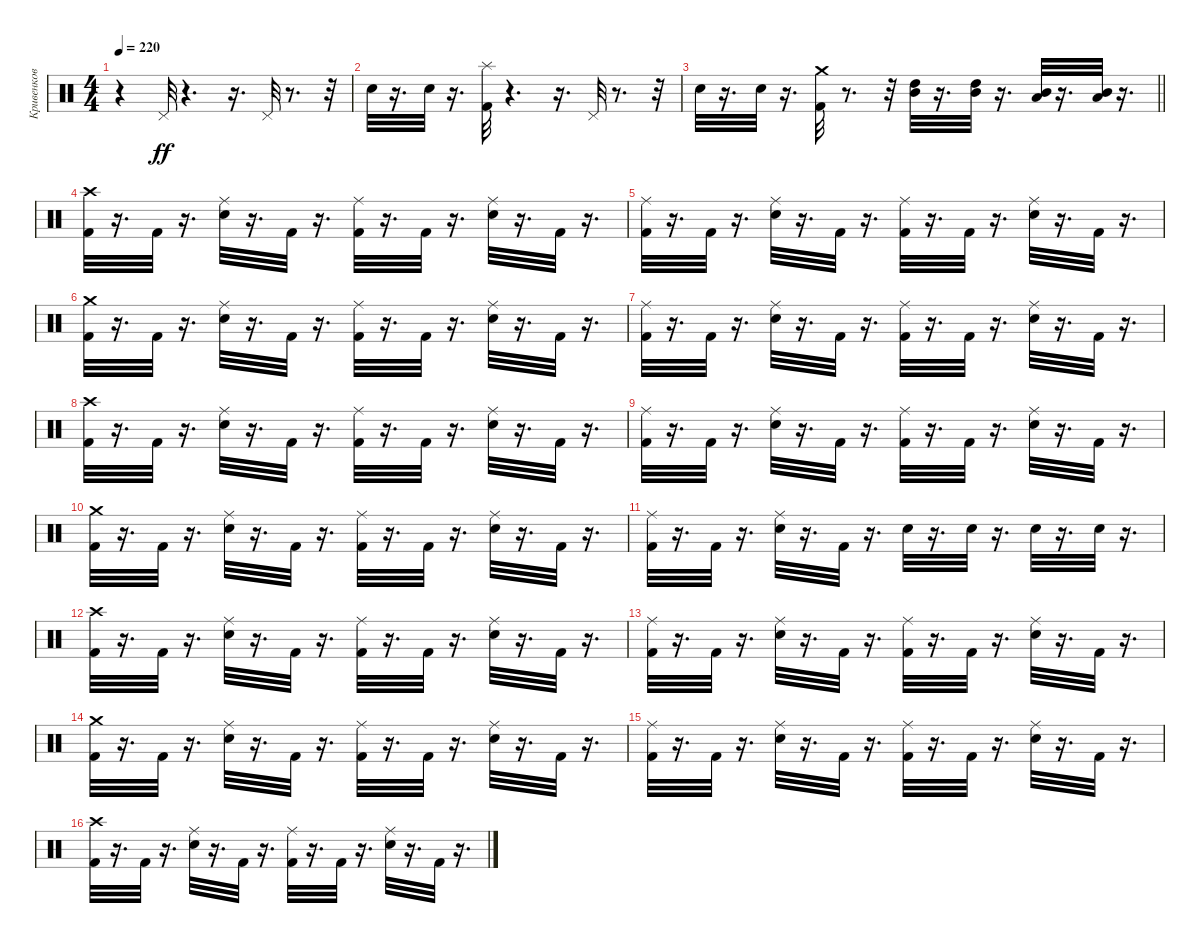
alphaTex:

\track ("Кривенков" "Кривенков") {instrument percussion}
\staff {score}
\articulation defaults
\ts (4 4)
\tempo 220
\clef neutral
\ks c
r.4{dy ff} "Pedal Hi-Hat (hit)".32 r.4{d} r.16{d} "Pedal Hi-Hat (hit)".32 r.8{d} r.32 |
"Electric Snare (hit)".32 r.16{d} "Electric Snare (hit)".32 r.16{d} ("Splash (hit)" "Kick (hit) 2").32 r.4{d} r.16{d} "Pedal Hi-Hat (hit)".32 r.8{d} r.32 |
\barLineRight lightlight "Electric Snare (hit)".32
r.16{d} "Electric Snare (hit)".32 r.16{d} ("Crash medium (hit)" "Kick (hit) 2").32 r.8{d} r.32 ("Mid Tom (hit)" "High Tom (hit)").32 r.16{d} ("Mid Tom (hit)" "High Tom (hit)").32 r.16{d} ("Low Tom (hit)" "Mid Tom (hit)").32 r.16{d} ("Mid Tom (hit)" "Low Tom (hit)").32 r.16{d} |
("Crash high (hit)" "Kick (hit) 2").32 r.16{d} "Kick (hit) 2".32 r.16{d} ("Ride (middle)" "Electric Snare (hit)").32 r.16{d} "Kick (hit) 2".32 r.16{d} ("Ride (middle)" "Kick (hit) 2").32 r.16{d} "Kick (hit) 2".32 r.16{d} ("Ride (middle)" "Electric Snare (hit)").32 r.16{d} "Kick (hit) 2".32 r.16{d} |
("Ride (middle)" "Kick (hit) 2").32 r.16{d} "Kick (hit) 2".32 r.16{d} ("Ride (middle)" "Electric Snare (hit)").32 r.16{d} "Kick (hit) 2".32 r.16{d} ("Ride (middle)" "Kick (hit) 2").32 r.16{d} "Kick (hit) 2".32 r.16{d} ("Ride (middle)" "Electric Snare (hit)").32 r.16{d} "Kick (hit) 2".32 r.16{d} |
("Crash medium (hit)" "Kick (hit) 2").32 r.16{d} "Kick (hit) 2".32 r.16{d} ("Ride (middle)" "Electric Snare (hit)").32 r.16{d} "Kick (hit) 2".32 r.16{d} ("Ride (middle)" "Kick (hit) 2").32 r.16{d} "Kick (hit) 2".32 r.16{d} ("Ride (middle)" "Electric Snare (hit)").32 r.16{d} "Kick (hit) 2".32 r.16{d} |
("Ride (middle)" "Kick (hit) 2").32 r.16{d} "Kick (hit) 2".32 r.16{d} ("Ride (middle)" "Electric Snare (hit)").32 r.16{d} "Kick (hit) 2".32 r.16{d} ("Ride (middle)" "Kick (hit) 2").32 r.16{d} "Kick (hit) 2".32 r.16{d} ("Ride (middle)" "Electric Snare (hit)").32 r.16{d} "Kick (hit) 2".32 r.16{d} |
("Crash high (hit)" "Kick (hit) 2").32 r.16{d} "Kick (hit) 2".32 r.16{d} ("Ride (middle)" "Electric Snare (hit)").32 r.16{d} "Kick (hit) 2".32 r.16{d} ("Ride (middle)" "Kick (hit) 2").32 r.16{d} "Kick (hit) 2".32 r.16{d} ("Ride (middle)" "Electric Snare (hit)").32 r.16{d} "Kick (hit) 2".32 r.16{d} |
("Ride (middle)" "Kick (hit) 2").32 r.16{d} "Kick (hit) 2".32 r.16{d} ("Ride (middle)" "Electric Snare (hit)").32 r.16{d} "Kick (hit) 2".32 r.16{d} ("Ride (middle)" "Kick (hit) 2").32 r.16{d} "Kick (hit) 2".32 r.16{d} ("Ride (middle)" "Electric Snare (hit)").32 r.16{d} "Kick (hit) 2".32 r.16{d} |
("Crash medium (hit)" "Kick (hit) 2").32 r.16{d} "Kick (hit) 2".32 r.16{d} ("Ride (middle)" "Electric Snare (hit)").32 r.16{d} "Kick (hit) 2".32 r.16{d} ("Ride (middle)" "Kick (hit) 2").32 r.16{d} "Kick (hit) 2".32 r.16{d} ("Ride (middle)" "Electric Snare (hit)").32 r.16{d} "Kick (hit) 2".32 r.16{d} |
("Ride (middle)" "Kick (hit) 2").32 r.16{d} "Kick (hit) 2".32 r.16{d} ("Ride (middle)" "Electric Snare (hit)").32 r.16{d} "Kick (hit) 2".32 r.16{d} "Electric Snare (hit)".32 r.16{d} "Electric Snare (hit)".32 r.16{d} "Electric Snare (hit)".32 r.16{d} "Electric Snare (hit)".32 r.16{d} |
("Crash high (hit)" "Kick (hit) 2").32 r.16{d} "Kick (hit) 2".32 r.16{d} ("Ride (middle)" "Electric Snare (hit)").32 r.16{d} "Kick (hit) 2".32 r.16{d} ("Ride (middle)" "Kick (hit) 2").32 r.16{d} "Kick (hit) 2".32 r.16{d} ("Ride (middle)" "Electric Snare (hit)").32 r.16{d} "Kick (hit) 2".32 r.16{d} |
("Ride (middle)" "Kick (hit) 2").32 r.16{d} "Kick (hit) 2".32 r.16{d} ("Ride (middle)" "Electric Snare (hit)").32 r.16{d} "Kick (hit) 2".32 r.16{d} ("Ride (middle)" "Kick (hit) 2").32 r.16{d} "Kick (hit) 2".32 r.16{d} ("Ride (middle)" "Electric Snare (hit)").32 r.16{d} "Kick (hit) 2".32 r.16{d} |
("Crash medium (hit)" "Kick (hit) 2").32 r.16{d} "Kick (hit) 2".32 r.16{d} ("Ride (middle)" "Electric Snare (hit)").32 r.16{d} "Kick (hit) 2".32 r.16{d} ("Ride (middle)" "Kick (hit) 2").32 r.16{d} "Kick (hit) 2".32 r.16{d} ("Ride (middle)" "Electric Snare (hit)").32 r.16{d} "Kick (hit) 2".32 r.16{d} |
("Ride (middle)" "Kick (hit) 2").32 r.16{d} "Kick (hit) 2".32 r.16{d} ("Ride (middle)" "Electric Snare (hit)").32 r.16{d} "Kick (hit) 2".32 r.16{d} ("Ride (middle)" "Kick (hit) 2").32 r.16{d} "Kick (hit) 2".32 r.16{d} ("Ride (middle)" "Electric Snare (hit)").32 r.16{d} "Kick (hit) 2".32 r.16{d} |
("Crash high (hit)" "Kick (hit) 2").32 r.16{d} "Kick (hit) 2".32 r.16{d} ("Ride (middle)" "Electric Snare (hit)").32 r.16{d} "Kick (hit) 2".32 r.16{d} ("Ride (middle)" "Kick (hit) 2").32 r.16{d} "Kick (hit) 2".32 r.16{d} ("Ride (middle)" "Electric Snare (hit)").32 r.16{d} "Kick (hit) 2".32 r.16{d}
